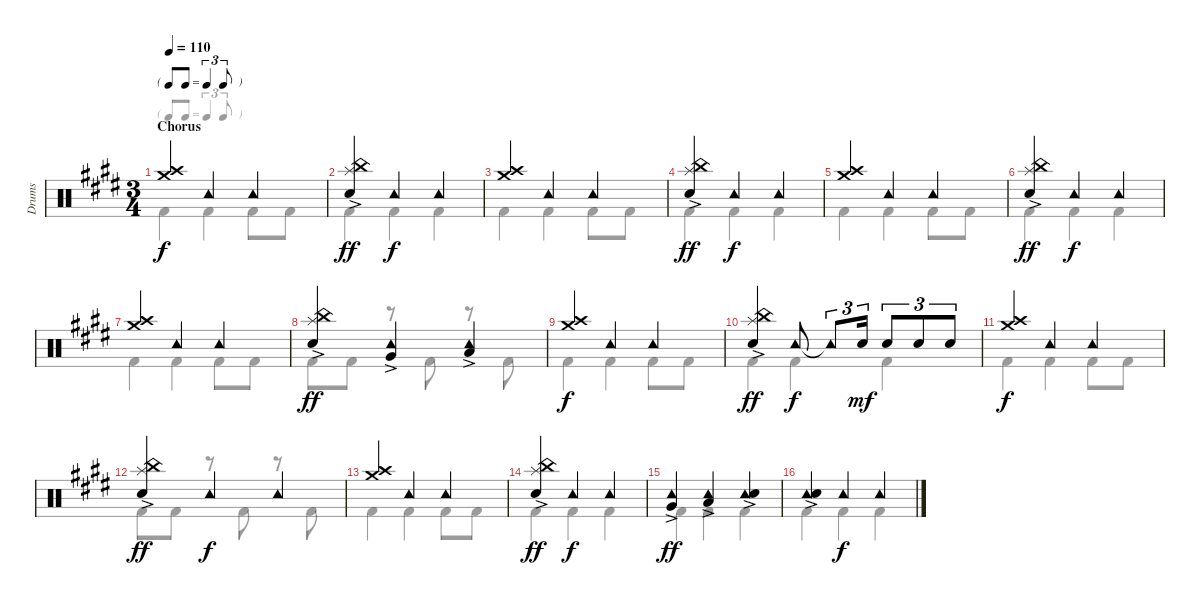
\track ("Drums" "Drums") {instrument percussion}
\staff {score}
\articulation defaults
\voice
\ts (3 4)
\tf triplet8th
\section ("" "Chorus")
\tempo 110
\clef neutral
\ks e
("Crash medium (hit)" "Crash high (hit)").4{dy f} "Tambourine (hit)".4 "Tambourine (hit)".4 |
("Splash (hit)" "China (hit)" "Snare (hit) 2"{ac}).4{dy ff} "Tambourine (hit)".4{dy f} "Tambourine (hit)".4 |
("Crash medium (hit)" "Crash high (hit)").4 "Tambourine (hit)".4 "Tambourine (hit)".4 |
("Splash (hit)" "China (hit)" "Snare (hit) 2"{ac}).4{dy ff} "Tambourine (hit)".4{dy f} "Tambourine (hit)".4 |
("Crash medium (hit)" "Crash high (hit)").4 "Tambourine (hit)".4 "Tambourine (hit)".4 |
("Splash (hit)" "China (hit)" "Snare (hit) 2"{ac}).4{dy ff} "Tambourine (hit)".4{dy f} "Tambourine (hit)".4 |
("Crash medium (hit)" "Crash high (hit)").4 "Tambourine (hit)".4 "Tambourine (hit)".4 |
("Splash (hit)" "China (hit)" "Snare (hit) 2"{ac}).4{dy ff} ("Tambourine (hit)" "Very Low Tom (hit)"{ac}).4 ("Tambourine (hit)" "Low Floor Tom (hit)"{ac}).4 |
("Crash medium (hit)" "Crash high (hit)").4{dy f} "Tambourine (hit)".4 "Tambourine (hit)".4 |
("Splash (hit)" "China (hit)" "Snare (hit) 2"{ac}).4{dy ff} "Tambourine (hit)".8{dy f} "Tambourine (hit)"{t}.8{tu (3 2)} "Snare (hit) 2".16{tu (3 2) dy mf} "Snare (hit) 2".8{tu (3 2)} "Snare (hit) 2".8{tu (3 2)} "Snare (hit) 2".8{tu (3 2)} |
("Crash medium (hit)" "Crash high (hit)").4{dy f} "Tambourine (hit)".4 "Tambourine (hit)".4 |
("Splash (hit)" "China (hit)" "Snare (hit) 2"{ac}).4{dy ff} "Tambourine (hit)".4{dy f} "Tambourine (hit)".4 |
("Crash medium (hit)" "Crash high (hit)").4 "Tambourine (hit)".4 "Tambourine (hit)".4 |
("Splash (hit)" "China (hit)" "Snare (hit) 2"{ac}).4{dy ff} "Tambourine (hit)".4{dy f} "Tambourine (hit)".4 |
("Tambourine (hit)" "Very Low Tom (hit)"{ac}).4{dy ff} ("Tambourine (hit)" "Low Floor Tom (hit)"{ac}).4 ("Tambourine (hit)" "Snare (hit) 2"{ac}).4 |
("Tambourine (hit)" "Snare (hit) 2"{ac}).4 "Tambourine (hit)".4{dy f} "Tambourine (hit)".4
\voice
\clef neutral
\ottava regular
\simile none
\ks e "Kick (hit) 2".4{dy f} "Kick (hit) 2".4 "Kick (hit) 2".8 "Kick (hit) 2".8
|
"Kick (hit) 2".4 "Kick (hit) 2".4 "Kick (hit) 2".4 |
"Kick (hit) 2".4 "Kick (hit) 2".4 "Kick (hit) 2".8 "Kick (hit) 2".8 |
"Kick (hit) 2".4 "Kick (hit) 2".4 "Kick (hit) 2".4 |
"Kick (hit) 2".4 "Kick (hit) 2".4 "Kick (hit) 2".8 "Kick (hit) 2".8 |
"Kick (hit) 2".4 "Kick (hit) 2".4 "Kick (hit) 2".4 |
"Kick (hit) 2".4 "Kick (hit) 2".4 "Kick (hit) 2".8 "Kick (hit) 2".8 |
"Kick (hit) 2".8 "Kick (hit) 2".8 r.8 "Kick (hit) 2".8 r.8 "Kick (hit) 2".8 |
"Kick (hit) 2".4 "Kick (hit) 2".4 "Kick (hit) 2".8 "Kick (hit) 2".8 |
"Kick (hit) 2".4 "Kick (hit) 2".4 "Kick (hit) 2".4 |
"Kick (hit) 2".4 "Kick (hit) 2".4 "Kick (hit) 2".8 "Kick (hit) 2".8 |
"Kick (hit) 2".8 "Kick (hit) 2".8 r.8 "Kick (hit) 2".8 r.8 "Kick (hit) 2".8 |
"Kick (hit) 2".4 "Kick (hit) 2".4 "Kick (hit) 2".8 "Kick (hit) 2".8 |
"Kick (hit) 2".4 "Kick (hit) 2".4 "Kick (hit) 2".4 |
"Kick (hit) 2".4 "Kick (hit) 2".4 "Kick (hit) 2".4 |
"Kick (hit) 2".4 "Kick (hit) 2".4 "Kick (hit) 2".4
